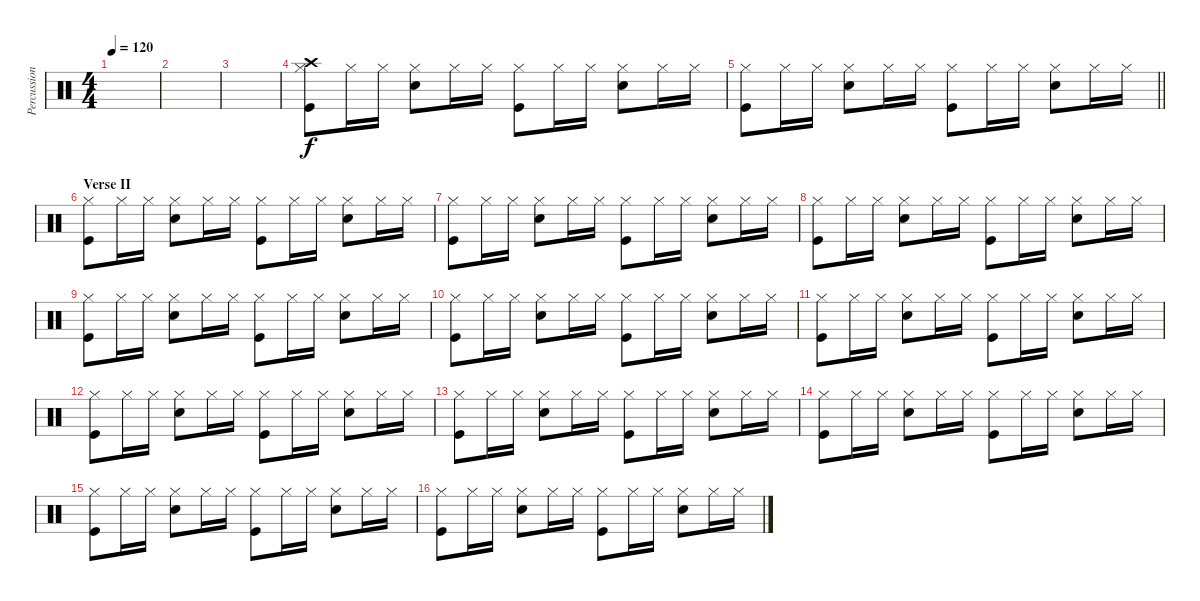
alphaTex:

\track ("Percussions" "Percussion") {instrument percussion}
\staff {score}
\articulation defaults
\ts (4 4)
\tempo 120
\clef neutral
\ks c
|
|
|
("Crash high (hit)" "Hi-Hat (closed)" "Kick (hit)").8 "Hi-Hat (closed)".16 "Hi-Hat (closed)".16 ("Hi-Hat (closed)" "Snare (hit) 2").8 "Hi-Hat (closed)".16 "Hi-Hat (closed)".16 ("Hi-Hat (closed)" "Kick (hit)").8 "Hi-Hat (closed)".16 "Hi-Hat (closed)".16 ("Hi-Hat (closed)" "Snare (hit) 2").8 "Hi-Hat (closed)".16 "Hi-Hat (closed)".16 |
\barLineRight lightlight
("Hi-Hat (closed)" "Kick (hit)").8 "Hi-Hat (closed)".16 "Hi-Hat (closed)".16 ("Hi-Hat (closed)" "Snare (hit) 2").8 "Hi-Hat (closed)".16 "Hi-Hat (closed)".16 ("Hi-Hat (closed)" "Kick (hit)").8 "Hi-Hat (closed)".16 "Hi-Hat (closed)".16 ("Hi-Hat (closed)" "Snare (hit) 2").8 "Hi-Hat (closed)".16 "Hi-Hat (closed)".16 |
\section ("" "Verse II")
("Hi-Hat (closed)" "Kick (hit)").8 "Hi-Hat (closed)".16 "Hi-Hat (closed)".16 ("Hi-Hat (closed)" "Snare (hit) 2").8 "Hi-Hat (closed)".16 "Hi-Hat (closed)".16 ("Hi-Hat (closed)" "Kick (hit)").8 "Hi-Hat (closed)".16 "Hi-Hat (closed)".16 ("Hi-Hat (closed)" "Snare (hit) 2").8 "Hi-Hat (closed)".16 "Hi-Hat (closed)".16 |
("Hi-Hat (closed)" "Kick (hit)").8 "Hi-Hat (closed)".16 "Hi-Hat (closed)".16 ("Hi-Hat (closed)" "Snare (hit) 2").8 "Hi-Hat (closed)".16 "Hi-Hat (closed)".16 ("Hi-Hat (closed)" "Kick (hit)").8 "Hi-Hat (closed)".16 "Hi-Hat (closed)".16 ("Hi-Hat (closed)" "Snare (hit) 2").8 "Hi-Hat (closed)".16 "Hi-Hat (closed)".16 |
("Hi-Hat (closed)" "Kick (hit)").8 "Hi-Hat (closed)".16 "Hi-Hat (closed)".16 ("Hi-Hat (closed)" "Snare (hit) 2").8 "Hi-Hat (closed)".16 "Hi-Hat (closed)".16 ("Hi-Hat (closed)" "Kick (hit)").8 "Hi-Hat (closed)".16 "Hi-Hat (closed)".16 ("Hi-Hat (closed)" "Snare (hit) 2").8 "Hi-Hat (closed)".16 "Hi-Hat (closed)".16 |
("Hi-Hat (closed)" "Kick (hit)").8 "Hi-Hat (closed)".16 "Hi-Hat (closed)".16 ("Hi-Hat (closed)" "Snare (hit) 2").8 "Hi-Hat (closed)".16 "Hi-Hat (closed)".16 ("Hi-Hat (closed)" "Kick (hit)").8 "Hi-Hat (closed)".16 "Hi-Hat (closed)".16 ("Hi-Hat (closed)" "Snare (hit) 2").8 "Hi-Hat (closed)".16 "Hi-Hat (closed)".16 |
("Hi-Hat (closed)" "Kick (hit)").8 "Hi-Hat (closed)".16 "Hi-Hat (closed)".16 ("Hi-Hat (closed)" "Snare (hit) 2").8 "Hi-Hat (closed)".16 "Hi-Hat (closed)".16 ("Hi-Hat (closed)" "Kick (hit)").8 "Hi-Hat (closed)".16 "Hi-Hat (closed)".16 ("Hi-Hat (closed)" "Snare (hit) 2").8 "Hi-Hat (closed)".16 "Hi-Hat (closed)".16 |
("Hi-Hat (closed)" "Kick (hit)").8 "Hi-Hat (closed)".16 "Hi-Hat (closed)".16 ("Hi-Hat (closed)" "Snare (hit) 2").8 "Hi-Hat (closed)".16 "Hi-Hat (closed)".16 ("Hi-Hat (closed)" "Kick (hit)").8 "Hi-Hat (closed)".16 "Hi-Hat (closed)".16 ("Hi-Hat (closed)" "Snare (hit) 2").8 "Hi-Hat (closed)".16 "Hi-Hat (closed)".16 |
("Hi-Hat (closed)" "Kick (hit)").8 "Hi-Hat (closed)".16 "Hi-Hat (closed)".16 ("Hi-Hat (closed)" "Snare (hit) 2").8 "Hi-Hat (closed)".16 "Hi-Hat (closed)".16 ("Hi-Hat (closed)" "Kick (hit)").8 "Hi-Hat (closed)".16 "Hi-Hat (closed)".16 ("Hi-Hat (closed)" "Snare (hit) 2").8 "Hi-Hat (closed)".16 "Hi-Hat (closed)".16 |
("Hi-Hat (closed)" "Kick (hit)").8 "Hi-Hat (closed)".16 "Hi-Hat (closed)".16 ("Hi-Hat (closed)" "Snare (hit) 2").8 "Hi-Hat (closed)".16 "Hi-Hat (closed)".16 ("Hi-Hat (closed)" "Kick (hit)").8 "Hi-Hat (closed)".16 "Hi-Hat (closed)".16 ("Hi-Hat (closed)" "Snare (hit) 2").8 "Hi-Hat (closed)".16 "Hi-Hat (closed)".16 |
("Hi-Hat (closed)" "Kick (hit)").8 "Hi-Hat (closed)".16 "Hi-Hat (closed)".16 ("Hi-Hat (closed)" "Snare (hit) 2").8 "Hi-Hat (closed)".16 "Hi-Hat (closed)".16 ("Hi-Hat (closed)" "Kick (hit)").8 "Hi-Hat (closed)".16 "Hi-Hat (closed)".16 ("Hi-Hat (closed)" "Snare (hit) 2").8 "Hi-Hat (closed)".16 "Hi-Hat (closed)".16 |
("Hi-Hat (closed)" "Kick (hit)").8 "Hi-Hat (closed)".16 "Hi-Hat (closed)".16 ("Hi-Hat (closed)" "Snare (hit) 2").8 "Hi-Hat (closed)".16 "Hi-Hat (closed)".16 ("Hi-Hat (closed)" "Kick (hit)").8 "Hi-Hat (closed)".16 "Hi-Hat (closed)".16 ("Hi-Hat (closed)" "Snare (hit) 2").8 "Hi-Hat (closed)".16 "Hi-Hat (closed)".16 |
("Hi-Hat (closed)" "Kick (hit)").8 "Hi-Hat (closed)".16 "Hi-Hat (closed)".16 ("Hi-Hat (closed)" "Snare (hit) 2").8 "Hi-Hat (closed)".16 "Hi-Hat (closed)".16 ("Hi-Hat (closed)" "Kick (hit)").8 "Hi-Hat (closed)".16 "Hi-Hat (closed)".16 ("Hi-Hat (closed)" "Snare (hit) 2").8 "Hi-Hat (closed)".16 "Hi-Hat (closed)".16
